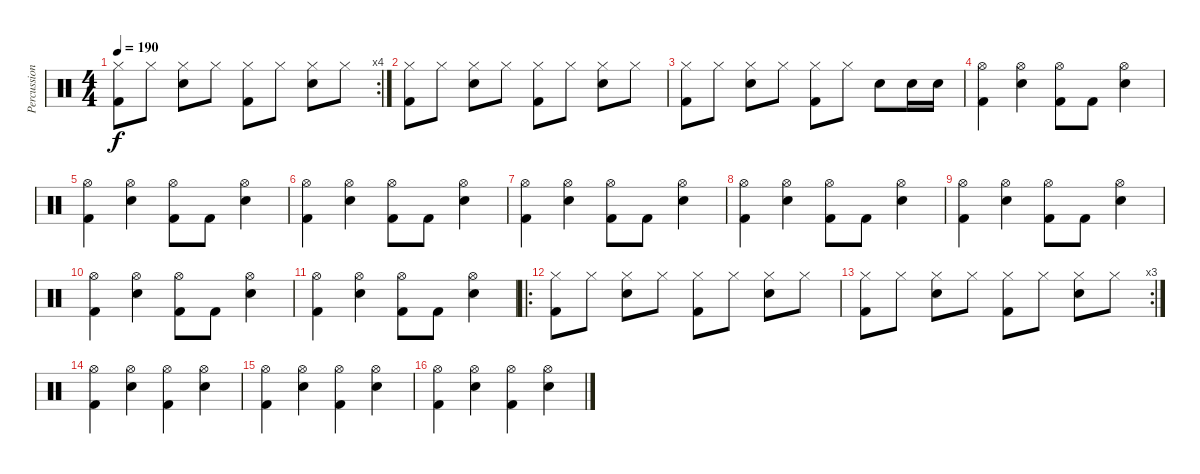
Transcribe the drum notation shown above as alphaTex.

\track ("Percussion" "Percussion") {instrument percussion}
\staff {score}
\articulation defaults
\rc 4
\ts (4 4)
\tempo 190
\clef neutral
\ks c
("Hi-Hat (closed)" "Kick (hit) 2").8{dy f} "Hi-Hat (closed)".8 ("Hi-Hat (closed)" "Snare (hit) 2").8 "Hi-Hat (closed)".8 ("Hi-Hat (closed)" "Kick (hit) 2").8 "Hi-Hat (closed)".8 ("Hi-Hat (closed)" "Snare (hit) 2").8 "Hi-Hat (closed)".8 |
("Hi-Hat (closed)" "Kick (hit) 2").8 "Hi-Hat (closed)".8 ("Hi-Hat (closed)" "Snare (hit) 2").8 "Hi-Hat (closed)".8 ("Hi-Hat (closed)" "Kick (hit) 2").8 "Hi-Hat (closed)".8 ("Hi-Hat (closed)" "Snare (hit) 2").8 "Hi-Hat (closed)".8 |
("Hi-Hat (closed)" "Kick (hit) 2").8 "Hi-Hat (closed)".8 ("Hi-Hat (closed)" "Snare (hit) 2").8 "Hi-Hat (closed)".8 ("Hi-Hat (closed)" "Kick (hit) 2").8 "Hi-Hat (closed)".8 "Snare (hit) 2".8 "Snare (hit) 2".16 "Snare (hit) 2".16 |
("Hi-Hat (open)" "Kick (hit) 2").4 ("Hi-Hat (open)" "Snare (hit) 2").4 ("Hi-Hat (open)" "Kick (hit) 2").8 "Kick (hit) 2".8 ("Hi-Hat (open)" "Snare (hit) 2").4 |
("Hi-Hat (open)" "Kick (hit) 2").4 ("Hi-Hat (open)" "Snare (hit) 2").4 ("Hi-Hat (open)" "Kick (hit) 2").8 "Kick (hit) 2".8 ("Hi-Hat (open)" "Snare (hit) 2").4 |
("Hi-Hat (open)" "Kick (hit) 2").4 ("Hi-Hat (open)" "Snare (hit) 2").4 ("Hi-Hat (open)" "Kick (hit) 2").8 "Kick (hit) 2".8 ("Hi-Hat (open)" "Snare (hit) 2").4 |
("Hi-Hat (open)" "Kick (hit) 2").4 ("Hi-Hat (open)" "Snare (hit) 2").4 ("Hi-Hat (open)" "Kick (hit) 2").8 "Kick (hit) 2".8 ("Hi-Hat (open)" "Snare (hit) 2").4 |
("Hi-Hat (open)" "Kick (hit) 2").4 ("Hi-Hat (open)" "Snare (hit) 2").4 ("Hi-Hat (open)" "Kick (hit) 2").8 "Kick (hit) 2".8 ("Hi-Hat (open)" "Snare (hit) 2").4 |
("Hi-Hat (open)" "Kick (hit) 2").4 ("Hi-Hat (open)" "Snare (hit) 2").4 ("Hi-Hat (open)" "Kick (hit) 2").8 "Kick (hit) 2".8 ("Hi-Hat (open)" "Snare (hit) 2").4 |
("Hi-Hat (open)" "Kick (hit) 2").4 ("Hi-Hat (open)" "Snare (hit) 2").4 ("Hi-Hat (open)" "Kick (hit) 2").8 "Kick (hit) 2".8 ("Hi-Hat (open)" "Snare (hit) 2").4 |
("Hi-Hat (open)" "Kick (hit) 2").4 ("Hi-Hat (open)" "Snare (hit) 2").4 ("Hi-Hat (open)" "Kick (hit) 2").8 "Kick (hit) 2".8 ("Hi-Hat (open)" "Snare (hit) 2").4 |
\ro
("Hi-Hat (closed)" "Kick (hit) 2").8 "Hi-Hat (closed)".8 ("Hi-Hat (closed)" "Snare (hit) 2").8 "Hi-Hat (closed)".8 ("Hi-Hat (closed)" "Kick (hit) 2").8 "Hi-Hat (closed)".8 ("Hi-Hat (closed)" "Snare (hit) 2").8 "Hi-Hat (closed)".8 |
\rc 3
("Hi-Hat (closed)" "Kick (hit) 2").8 "Hi-Hat (closed)".8 ("Hi-Hat (closed)" "Snare (hit) 2").8 "Hi-Hat (closed)".8 ("Hi-Hat (closed)" "Kick (hit) 2").8 "Hi-Hat (closed)".8 ("Hi-Hat (closed)" "Snare (hit) 2").8 "Hi-Hat (closed)".8 |
("Hi-Hat (open)" "Kick (hit) 2").4 ("Hi-Hat (open)" "Snare (hit) 2").4 ("Hi-Hat (open)" "Kick (hit) 2").4 ("Hi-Hat (open)" "Snare (hit) 2").4 |
("Hi-Hat (open)" "Kick (hit) 2").4 ("Hi-Hat (open)" "Snare (hit) 2").4 ("Hi-Hat (open)" "Kick (hit) 2").4 ("Hi-Hat (open)" "Snare (hit) 2").4 |
("Hi-Hat (open)" "Kick (hit) 2").4 ("Hi-Hat (open)" "Snare (hit) 2").4 ("Hi-Hat (open)" "Kick (hit) 2").4 ("Hi-Hat (open)" "Snare (hit) 2").4
